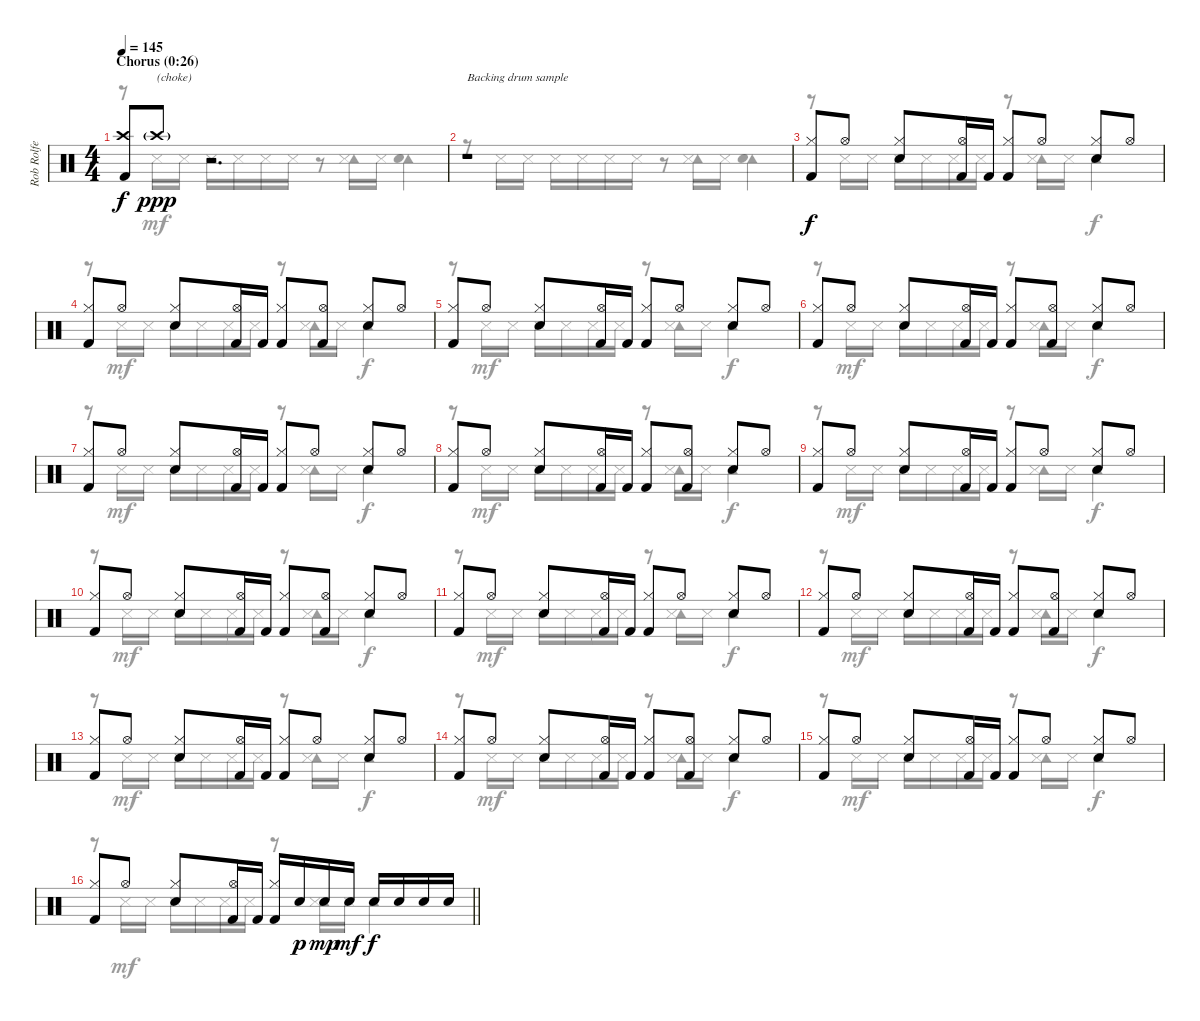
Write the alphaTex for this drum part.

\track ("Rob Rolfe [Drums]" "Rob Rolfe ") {instrument percussion}
\staff {score}
\articulation defaults
\voice
\ts (4 4)
\section ("" "Chorus (0:26)")
\tempo 145
\clef neutral
\ks c
("Crash high (hit)" "Kick (hit) 2").8{dy f} "Crash high (hit)"{g}.8{txt "(choke)" dy ppp} r.2{d} |
r.1{txt "Backing drum sample"} |
("Hi-Hat (closed)" "Kick (hit) 2").8{dy f} "Hi-Hat (open)".8 ("Hi-Hat (closed)" "Snare (hit) 2").8 ("Hi-Hat (open)" "Kick (hit) 2").16 "Kick (hit) 2".16 ("Hi-Hat (closed)" "Kick (hit) 2").8 "Hi-Hat (open)".8 ("Hi-Hat (closed)" "Snare (hit) 2").8 "Hi-Hat (open)".8 |
("Hi-Hat (closed)" "Kick (hit) 2").8 "Hi-Hat (open)".8 ("Hi-Hat (closed)" "Snare (hit) 2").8 ("Hi-Hat (open)" "Kick (hit) 2").16 "Kick (hit) 2".16 ("Hi-Hat (closed)" "Kick (hit) 2").8 ("Hi-Hat (open)" "Kick (hit) 2").8 ("Hi-Hat (closed)" "Snare (hit) 2").8 "Hi-Hat (open)".8 |
("Hi-Hat (closed)" "Kick (hit) 2").8 "Hi-Hat (open)".8 ("Hi-Hat (closed)" "Snare (hit) 2").8 ("Hi-Hat (open)" "Kick (hit) 2").16 "Kick (hit) 2".16 ("Hi-Hat (closed)" "Kick (hit) 2").8 "Hi-Hat (open)".8 ("Hi-Hat (closed)" "Snare (hit) 2").8 "Hi-Hat (open)".8 |
("Hi-Hat (closed)" "Kick (hit) 2").8 "Hi-Hat (open)".8 ("Hi-Hat (closed)" "Snare (hit) 2").8 ("Hi-Hat (open)" "Kick (hit) 2").16 "Kick (hit) 2".16 ("Hi-Hat (closed)" "Kick (hit) 2").8 ("Hi-Hat (open)" "Kick (hit) 2").8 ("Hi-Hat (closed)" "Snare (hit) 2").8 "Hi-Hat (open)".8 |
("Hi-Hat (closed)" "Kick (hit) 2").8 "Hi-Hat (open)".8 ("Hi-Hat (closed)" "Snare (hit) 2").8 ("Hi-Hat (open)" "Kick (hit) 2").16 "Kick (hit) 2".16 ("Hi-Hat (closed)" "Kick (hit) 2").8 "Hi-Hat (open)".8 ("Hi-Hat (closed)" "Snare (hit) 2").8 "Hi-Hat (open)".8 |
("Hi-Hat (closed)" "Kick (hit) 2").8 "Hi-Hat (open)".8 ("Hi-Hat (closed)" "Snare (hit) 2").8 ("Hi-Hat (open)" "Kick (hit) 2").16 "Kick (hit) 2".16 ("Hi-Hat (closed)" "Kick (hit) 2").8 ("Hi-Hat (open)" "Kick (hit) 2").8 ("Hi-Hat (closed)" "Snare (hit) 2").8 "Hi-Hat (open)".8 |
("Hi-Hat (closed)" "Kick (hit) 2").8 "Hi-Hat (open)".8 ("Hi-Hat (closed)" "Snare (hit) 2").8 ("Hi-Hat (open)" "Kick (hit) 2").16 "Kick (hit) 2".16 ("Hi-Hat (closed)" "Kick (hit) 2").8 "Hi-Hat (open)".8 ("Hi-Hat (closed)" "Snare (hit) 2").8 "Hi-Hat (open)".8 |
("Hi-Hat (closed)" "Kick (hit) 2").8 "Hi-Hat (open)".8 ("Hi-Hat (closed)" "Snare (hit) 2").8 ("Hi-Hat (open)" "Kick (hit) 2").16 "Kick (hit) 2".16 ("Hi-Hat (closed)" "Kick (hit) 2").8 ("Hi-Hat (open)" "Kick (hit) 2").8 ("Hi-Hat (closed)" "Snare (hit) 2").8 "Hi-Hat (open)".8 |
("Hi-Hat (closed)" "Kick (hit) 2").8 "Hi-Hat (open)".8 ("Hi-Hat (closed)" "Snare (hit) 2").8 ("Hi-Hat (open)" "Kick (hit) 2").16 "Kick (hit) 2".16 ("Hi-Hat (closed)" "Kick (hit) 2").8 "Hi-Hat (open)".8 ("Hi-Hat (closed)" "Snare (hit) 2").8 "Hi-Hat (open)".8 |
("Hi-Hat (closed)" "Kick (hit) 2").8 "Hi-Hat (open)".8 ("Hi-Hat (closed)" "Snare (hit) 2").8 ("Hi-Hat (open)" "Kick (hit) 2").16 "Kick (hit) 2".16 ("Hi-Hat (closed)" "Kick (hit) 2").8 ("Hi-Hat (open)" "Kick (hit) 2").8 ("Hi-Hat (closed)" "Snare (hit) 2").8 "Hi-Hat (open)".8 |
("Hi-Hat (closed)" "Kick (hit) 2").8 "Hi-Hat (open)".8 ("Hi-Hat (closed)" "Snare (hit) 2").8 ("Hi-Hat (open)" "Kick (hit) 2").16 "Kick (hit) 2".16 ("Hi-Hat (closed)" "Kick (hit) 2").8 "Hi-Hat (open)".8 ("Hi-Hat (closed)" "Snare (hit) 2").8 "Hi-Hat (open)".8 |
("Hi-Hat (closed)" "Kick (hit) 2").8 "Hi-Hat (open)".8 ("Hi-Hat (closed)" "Snare (hit) 2").8 ("Hi-Hat (open)" "Kick (hit) 2").16 "Kick (hit) 2".16 ("Hi-Hat (closed)" "Kick (hit) 2").8 ("Hi-Hat (open)" "Kick (hit) 2").8 ("Hi-Hat (closed)" "Snare (hit) 2").8 "Hi-Hat (open)".8 |
("Hi-Hat (closed)" "Kick (hit) 2").8 "Hi-Hat (open)".8 ("Hi-Hat (closed)" "Snare (hit) 2").8 ("Hi-Hat (open)" "Kick (hit) 2").16 "Kick (hit) 2".16 ("Hi-Hat (closed)" "Kick (hit) 2").8 "Hi-Hat (open)".8 ("Hi-Hat (closed)" "Snare (hit) 2").8 "Hi-Hat (open)".8 |
\barLineRight lightlight
("Hi-Hat (closed)" "Kick (hit) 2").8 "Hi-Hat (open)".8 ("Hi-Hat (closed)" "Snare (hit) 2").8 ("Hi-Hat (open)" "Kick (hit) 2").16 "Kick (hit) 2".16 ("Hi-Hat (closed)" "Kick (hit) 2").16 "Snare (hit) 2".16{dy p} "Snare (hit) 2".16{dy mp} "Snare (hit) 2".16{dy mf} "Snare (hit) 2".16{dy f} "Snare (hit) 2".16 "Snare (hit) 2".16 "Snare (hit) 2".16
\voice
\clef neutral
\ottava regular
\simile none
\ks c
r.8{dy mf} "Snare (side stick) 3".16 "Snare (side stick) 3".16 "Snare (side stick) 3".16 "Snare (side stick) 3".16 "Snare (side stick) 3".16 "Snare (side stick) 3".16 r.8 ("Tambourine (hit)" "Snare (side stick) 3").16 "Snare (side stick) 3".16 ("Tambourine (hit)" "Snare (hit) 2").4 |
r.8 "Snare (side stick) 3".16 "Snare (side stick) 3".16 "Snare (side stick) 3".16 "Snare (side stick) 3".16 "Snare (side stick) 3".16 "Snare (side stick) 3".16 r.8 ("Tambourine (hit)" "Snare (side stick) 3").16 "Snare (side stick) 3".16 ("Tambourine (hit)" "Snare (hit) 2").4 |
r.8 "Snare (side stick) 3".16 "Snare (side stick) 3".16 "Snare (side stick) 3".16 "Snare (side stick) 3".16 "Snare (side stick) 3".16 "Snare (side stick) 3".16 r.8 ("Tambourine (hit)" "Snare (side stick) 3").16 "Snare (side stick) 3".16 "Tambourine (hit)".4{dy f} |
r.8 "Snare (side stick) 3".16{dy mf} "Snare (side stick) 3".16 "Snare (side stick) 3".16 "Snare (side stick) 3".16 "Snare (side stick) 3".16 "Snare (side stick) 3".16 r.8 ("Tambourine (hit)" "Snare (side stick) 3").16 "Snare (side stick) 3".16 "Tambourine (hit)".4{dy f} |
r.8 "Snare (side stick) 3".16{dy mf} "Snare (side stick) 3".16 "Snare (side stick) 3".16 "Snare (side stick) 3".16 "Snare (side stick) 3".16 "Snare (side stick) 3".16 r.8 ("Tambourine (hit)" "Snare (side stick) 3").16 "Snare (side stick) 3".16 "Tambourine (hit)".4{dy f} |
r.8 "Snare (side stick) 3".16{dy mf} "Snare (side stick) 3".16 "Snare (side stick) 3".16 "Snare (side stick) 3".16 "Snare (side stick) 3".16 "Snare (side stick) 3".16 r.8 ("Tambourine (hit)" "Snare (side stick) 3").16 "Snare (side stick) 3".16 "Tambourine (hit)".4{dy f} |
r.8 "Snare (side stick) 3".16{dy mf} "Snare (side stick) 3".16 "Snare (side stick) 3".16 "Snare (side stick) 3".16 "Snare (side stick) 3".16 "Snare (side stick) 3".16 r.8 ("Tambourine (hit)" "Snare (side stick) 3").16 "Snare (side stick) 3".16 "Tambourine (hit)".4{dy f} |
r.8 "Snare (side stick) 3".16{dy mf} "Snare (side stick) 3".16 "Snare (side stick) 3".16 "Snare (side stick) 3".16 "Snare (side stick) 3".16 "Snare (side stick) 3".16 r.8 ("Tambourine (hit)" "Snare (side stick) 3").16 "Snare (side stick) 3".16 "Tambourine (hit)".4{dy f} |
r.8 "Snare (side stick) 3".16{dy mf} "Snare (side stick) 3".16 "Snare (side stick) 3".16 "Snare (side stick) 3".16 "Snare (side stick) 3".16 "Snare (side stick) 3".16 r.8 ("Tambourine (hit)" "Snare (side stick) 3").16 "Snare (side stick) 3".16 "Tambourine (hit)".4{dy f} |
r.8 "Snare (side stick) 3".16{dy mf} "Snare (side stick) 3".16 "Snare (side stick) 3".16 "Snare (side stick) 3".16 "Snare (side stick) 3".16 "Snare (side stick) 3".16 r.8 ("Tambourine (hit)" "Snare (side stick) 3").16 "Snare (side stick) 3".16 "Tambourine (hit)".4{dy f} |
r.8 "Snare (side stick) 3".16{dy mf} "Snare (side stick) 3".16 "Snare (side stick) 3".16 "Snare (side stick) 3".16 "Snare (side stick) 3".16 "Snare (side stick) 3".16 r.8 ("Tambourine (hit)" "Snare (side stick) 3").16 "Snare (side stick) 3".16 "Tambourine (hit)".4{dy f} |
r.8 "Snare (side stick) 3".16{dy mf} "Snare (side stick) 3".16 "Snare (side stick) 3".16 "Snare (side stick) 3".16 "Snare (side stick) 3".16 "Snare (side stick) 3".16 r.8 ("Tambourine (hit)" "Snare (side stick) 3").16 "Snare (side stick) 3".16 "Tambourine (hit)".4{dy f} |
r.8 "Snare (side stick) 3".16{dy mf} "Snare (side stick) 3".16 "Snare (side stick) 3".16 "Snare (side stick) 3".16 "Snare (side stick) 3".16 "Snare (side stick) 3".16 r.8 ("Tambourine (hit)" "Snare (side stick) 3").16 "Snare (side stick) 3".16 "Tambourine (hit)".4{dy f} |
r.8 "Snare (side stick) 3".16{dy mf} "Snare (side stick) 3".16 "Snare (side stick) 3".16 "Snare (side stick) 3".16 "Snare (side stick) 3".16 "Snare (side stick) 3".16 r.8 ("Tambourine (hit)" "Snare (side stick) 3").16 "Snare (side stick) 3".16 "Tambourine (hit)".4{dy f} |
r.8 "Snare (side stick) 3".16{dy mf} "Snare (side stick) 3".16 "Snare (side stick) 3".16 "Snare (side stick) 3".16 "Snare (side stick) 3".16 "Snare (side stick) 3".16 r.8 ("Tambourine (hit)" "Snare (side stick) 3").16 "Snare (side stick) 3".16 "Tambourine (hit)".4{dy f} |
\barLineRight lightlight
r.8 "Snare (side stick) 3".16{dy mf} "Snare (side stick) 3".16 "Snare (side stick) 3".16 "Snare (side stick) 3".16 "Snare (side stick) 3".16 "Snare (side stick) 3".16 r.8 ("Tambourine (hit)" "Snare (side stick) 3").16 "Snare (side stick) 3".16 "Tambourine (hit)".4{dy f}
